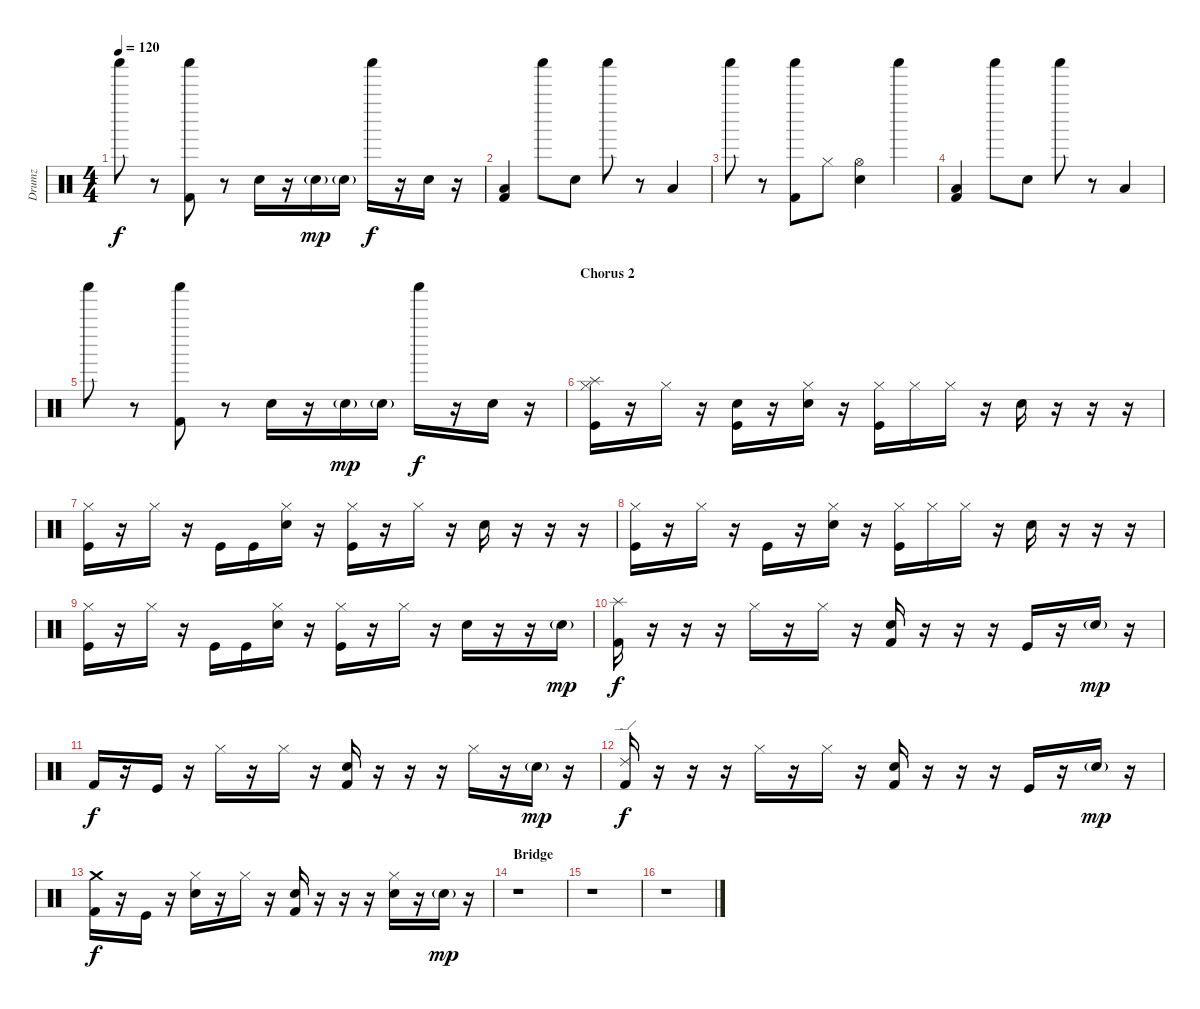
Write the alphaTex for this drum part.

\track ("Drumz" "Drumz") {instrument percussion}
\staff {score}
\articulation defaults
\ts (4 4)
\tempo 120
\clef neutral
\ks c "Shaker (hit)".8{dy f}
r.8 ("Kick (hit) 2" "Shaker (hit)").8 r.8 "Electric Snare (hit)".16 r.16 "Electric Snare (hit)"{g}.16{dy mp} "Electric Snare (hit)"{g}.16 "Shaker (hit)".16{dy f} r.16 "Electric Snare (hit)".16 r.16 |
("Low Tom (hit)" "Kick (hit) 2").4 "Shaker (hit)".8 "Electric Snare (hit)".8 "Shaker (hit)".8 r.8 "Low Tom (hit)".4 |
"Shaker (hit)".8 r.8 ("Kick (hit) 2" "Shaker (hit)").8 "Hi-Hat (closed)".8 ("Hi-Hat (open)" "Electric Snare (hit)").4 "Shaker (hit)".4 |
("Low Tom (hit)" "Kick (hit) 2").4 "Shaker (hit)".8 "Electric Snare (hit)".8 "Shaker (hit)".8 r.8 "Low Tom (hit)".4 |
"Shaker (hit)".8 r.8 ("Kick (hit) 2" "Shaker (hit)").8 r.8 "Electric Snare (hit)".16 r.16 "Electric Snare (hit)"{g}.16{dy mp} "Electric Snare (hit)"{g}.16 "Shaker (hit)".16{dy f} r.16 "Electric Snare (hit)".16 r.16 |
\section ("" "Chorus 2")
("Splash (hit)" "Hi-Hat (closed)" "Kick (hit)").16 r.16 "Hi-Hat (closed)".16 r.16 ("Electric Snare (hit)" "Kick (hit)").16 r.16 ("Hi-Hat (closed)" "Electric Snare (hit)").16 r.16 ("Hi-Hat (closed)" "Kick (hit)").16 "Hi-Hat (closed)".16 "Hi-Hat (closed)".16 r.16 "Electric Snare (hit)".16 r.16 r.16 r.16 |
("Hi-Hat (closed)" "Kick (hit)").16 r.16 "Hi-Hat (closed)".16 r.16 "Kick (hit)".16 "Kick (hit)".16 ("Hi-Hat (closed)" "Electric Snare (hit)").16 r.16 ("Hi-Hat (closed)" "Kick (hit)").16 r.16 "Hi-Hat (closed)".16 r.16 "Electric Snare (hit)".16 r.16 r.16 r.16 |
("Hi-Hat (closed)" "Kick (hit)").16 r.16 "Hi-Hat (closed)".16 r.16 "Kick (hit)".16 r.16 ("Hi-Hat (closed)" "Electric Snare (hit)").16 r.16 ("Hi-Hat (closed)" "Kick (hit)").16 "Hi-Hat (closed)".16 "Hi-Hat (closed)".16 r.16 "Electric Snare (hit)".16 r.16 r.16 r.16 |
("Hi-Hat (closed)" "Kick (hit)").16 r.16 "Hi-Hat (closed)".16 r.16 "Kick (hit)".16 "Kick (hit)".16 ("Hi-Hat (closed)" "Electric Snare (hit)").16 r.16 ("Hi-Hat (closed)" "Kick (hit)").16 r.16 "Hi-Hat (closed)".16 r.16 "Electric Snare (hit)".16 r.16 r.16 "Electric Snare (hit)"{g}.16{dy mp} |
("Splash (hit)" "Kick (hit) 2").16{dy f} r.16 r.16 r.16 "Hi-Hat (closed)".16 r.16 "Hi-Hat (closed)".16 r.16 ("Electric Snare (hit)" "Kick (hit) 2").16 r.16 r.16 r.16 "Kick (hit)".16 r.16 "Electric Snare (hit)"{g}.16{dy mp} r.16 |
"Kick (hit) 2".16{dy f} r.16 "Kick (hit)".16 r.16 "Hi-Hat (closed)".16 r.16 "Hi-Hat (closed)".16 r.16 ("Electric Snare (hit)" "Kick (hit) 2").16 r.16 r.16 r.16 "Hi-Hat (closed)".16 r.16 "Electric Snare (hit)"{g}.16{dy mp} r.16 |
("Ride (edge) 2" "Kick (hit) 2").16{dy f} r.16 r.16 r.16 "Hi-Hat (closed)".16 r.16 "Hi-Hat (closed)".16 r.16 ("Electric Snare (hit)" "Kick (hit) 2").16 r.16 r.16 r.16 "Kick (hit)".16 r.16 "Electric Snare (hit)"{g}.16{dy mp} r.16 |
("Crash medium (hit)" "Kick (hit) 2").16{dy f} r.16 "Kick (hit)".16 r.16 ("Electric Snare (hit)" "Hi-Hat (closed)").16 r.16 "Hi-Hat (closed)".16 r.16 ("Electric Snare (hit)" "Kick (hit) 2").16 r.16 r.16 r.16 ("Electric Snare (hit)" "Hi-Hat (closed)").16 r.16 "Electric Snare (hit)"{g}.16{dy mp} r.16 |
\section ("" "Bridge")
r.1 |
r.1 |
r.1
